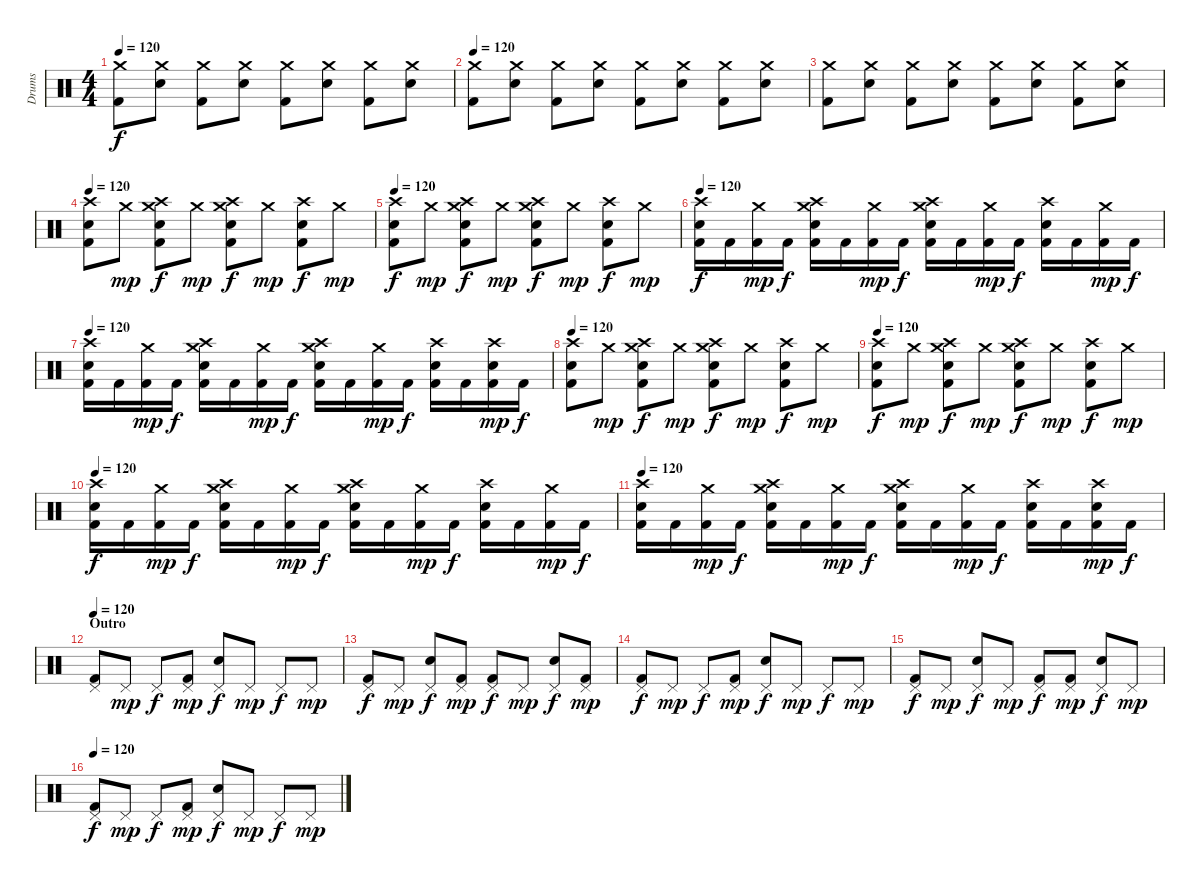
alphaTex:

\track ("Drums" "Drums") {instrument percussion}
\staff {score}
\articulation defaults
\ts (4 4)
\tempo 120
\clef neutral
\ks c
("Crash medium (hit)" "Kick (hit) 2").8{dy f} ("Crash medium (hit)" "Electric Snare (hit)").8 ("Crash medium (hit)" "Kick (hit) 2").8 ("Crash medium (hit)" "Electric Snare (hit)").8 ("Crash medium (hit)" "Kick (hit) 2").8 ("Crash medium (hit)" "Electric Snare (hit)").8 ("Crash medium (hit)" "Kick (hit) 2").8 ("Crash medium (hit)" "Electric Snare (hit)").8 |
\tempo 120
("Crash medium (hit)" "Kick (hit) 2").8 ("Crash medium (hit)" "Electric Snare (hit)").8 ("Crash medium (hit)" "Kick (hit) 2").8 ("Crash medium (hit)" "Electric Snare (hit)").8 ("Crash medium (hit)" "Kick (hit) 2").8 ("Crash medium (hit)" "Electric Snare (hit)").8 ("Crash medium (hit)" "Kick (hit) 2").8 ("Crash medium (hit)" "Electric Snare (hit)").8 |
("Crash medium (hit)" "Kick (hit) 2").8 ("Crash medium (hit)" "Electric Snare (hit)").8 ("Crash medium (hit)" "Kick (hit) 2").8 ("Crash medium (hit)" "Electric Snare (hit)").8 ("Crash medium (hit)" "Kick (hit) 2").8 ("Crash medium (hit)" "Electric Snare (hit)").8 ("Crash medium (hit)" "Kick (hit) 2").8 ("Crash medium (hit)" "Electric Snare (hit)").8 |
\tempo 120
("Crash high (hit)" "Electric Snare (hit)" "Kick (hit) 2").8 "Crash medium (hit)".8{dy mp} ("Crash medium (hit)" "Crash high (hit)" "Electric Snare (hit)" "Kick (hit) 2").8{dy f} "Crash medium (hit)".8{dy mp} ("Crash high (hit)" "Crash medium (hit)" "Electric Snare (hit)" "Kick (hit) 2").8{dy f} "Crash medium (hit)".8{dy mp} ("Crash high (hit)" "Electric Snare (hit)" "Kick (hit) 2").8{dy f} "Crash medium (hit)".8{dy mp} |
\tempo 120
("Crash high (hit)" "Electric Snare (hit)" "Kick (hit) 2").8{dy f} "Crash medium (hit)".8{dy mp} ("Crash medium (hit)" "Crash high (hit)" "Electric Snare (hit)" "Kick (hit) 2").8{dy f} "Crash medium (hit)".8{dy mp} ("Crash high (hit)" "Crash medium (hit)" "Electric Snare (hit)" "Kick (hit) 2").8{dy f} "Crash medium (hit)".8{dy mp} ("Crash high (hit)" "Electric Snare (hit)" "Kick (hit) 2").8{dy f} "Crash medium (hit)".8{dy mp} |
\tempo 120
("Crash high (hit)" "Electric Snare (hit)" "Kick (hit) 2").16{dy f} "Kick (hit) 2".16 ("Crash medium (hit)" "Kick (hit) 2").16{dy mp} "Kick (hit) 2".16{dy f} ("Crash medium (hit)" "Crash high (hit)" "Electric Snare (hit)" "Kick (hit) 2").16 "Kick (hit) 2".16 ("Crash medium (hit)" "Kick (hit) 2").16{dy mp} "Kick (hit) 2".16{dy f} ("Crash high (hit)" "Crash medium (hit)" "Electric Snare (hit)" "Kick (hit) 2").16 "Kick (hit) 2".16 ("Crash medium (hit)" "Kick (hit) 2").16{dy mp} "Kick (hit) 2".16{dy f} ("Crash high (hit)" "Electric Snare (hit)" "Kick (hit) 2").16 "Kick (hit) 2".16 ("Crash medium (hit)" "Kick (hit) 2").16{dy mp} "Kick (hit) 2".16{dy f} |
\tempo 120
("Crash high (hit)" "Electric Snare (hit)" "Kick (hit) 2").16 "Kick (hit) 2".16 ("Crash medium (hit)" "Kick (hit) 2").16{dy mp} "Kick (hit) 2".16{dy f} ("Crash medium (hit)" "Crash high (hit)" "Electric Snare (hit)" "Kick (hit) 2").16 "Kick (hit) 2".16 ("Crash medium (hit)" "Kick (hit) 2").16{dy mp} "Kick (hit) 2".16{dy f} ("Crash high (hit)" "Crash medium (hit)" "Electric Snare (hit)" "Kick (hit) 2").16 "Kick (hit) 2".16 ("Crash medium (hit)" "Kick (hit) 2").16{dy mp} "Kick (hit) 2".16{dy f} ("Crash high (hit)" "Electric Snare (hit)" "Kick (hit) 2").16 "Kick (hit) 2".16 ("Crash high (hit)" "Electric Snare (hit)" "Kick (hit) 2").16{dy mp} "Kick (hit) 2".16{dy f} |
\tempo 120
("Crash high (hit)" "Electric Snare (hit)" "Kick (hit) 2").8 "Crash medium (hit)".8{dy mp} ("Crash medium (hit)" "Crash high (hit)" "Electric Snare (hit)" "Kick (hit) 2").8{dy f} "Crash medium (hit)".8{dy mp} ("Crash high (hit)" "Crash medium (hit)" "Electric Snare (hit)" "Kick (hit) 2").8{dy f} "Crash medium (hit)".8{dy mp} ("Crash high (hit)" "Electric Snare (hit)" "Kick (hit) 2").8{dy f} "Crash medium (hit)".8{dy mp} |
\tempo 120
("Crash high (hit)" "Electric Snare (hit)" "Kick (hit) 2").8{dy f} "Crash medium (hit)".8{dy mp} ("Crash medium (hit)" "Crash high (hit)" "Electric Snare (hit)" "Kick (hit) 2").8{dy f} "Crash medium (hit)".8{dy mp} ("Crash high (hit)" "Crash medium (hit)" "Electric Snare (hit)" "Kick (hit) 2").8{dy f} "Crash medium (hit)".8{dy mp} ("Crash high (hit)" "Electric Snare (hit)" "Kick (hit) 2").8{dy f} "Crash medium (hit)".8{dy mp} |
\tempo 120
("Crash high (hit)" "Electric Snare (hit)" "Kick (hit) 2").16{dy f} "Kick (hit) 2".16 ("Crash medium (hit)" "Kick (hit) 2").16{dy mp} "Kick (hit) 2".16{dy f} ("Crash medium (hit)" "Crash high (hit)" "Electric Snare (hit)" "Kick (hit) 2").16 "Kick (hit) 2".16 ("Crash medium (hit)" "Kick (hit) 2").16{dy mp} "Kick (hit) 2".16{dy f} ("Crash high (hit)" "Crash medium (hit)" "Electric Snare (hit)" "Kick (hit) 2").16 "Kick (hit) 2".16 ("Crash medium (hit)" "Kick (hit) 2").16{dy mp} "Kick (hit) 2".16{dy f} ("Crash high (hit)" "Electric Snare (hit)" "Kick (hit) 2").16 "Kick (hit) 2".16 ("Crash medium (hit)" "Kick (hit) 2").16{dy mp} "Kick (hit) 2".16{dy f} |
\tempo 120
("Crash high (hit)" "Electric Snare (hit)" "Kick (hit) 2").16 "Kick (hit) 2".16 ("Crash medium (hit)" "Kick (hit) 2").16{dy mp} "Kick (hit) 2".16{dy f} ("Crash medium (hit)" "Crash high (hit)" "Electric Snare (hit)" "Kick (hit) 2").16 "Kick (hit) 2".16 ("Crash medium (hit)" "Kick (hit) 2").16{dy mp} "Kick (hit) 2".16{dy f} ("Crash high (hit)" "Crash medium (hit)" "Electric Snare (hit)" "Kick (hit) 2").16 "Kick (hit) 2".16 ("Crash medium (hit)" "Kick (hit) 2").16{dy mp} "Kick (hit) 2".16{dy f} ("Crash high (hit)" "Electric Snare (hit)" "Kick (hit) 2").16 "Kick (hit) 2".16 ("Crash high (hit)" "Electric Snare (hit)" "Kick (hit) 2").16{dy mp} "Kick (hit) 2".16{dy f} |
\section ("" "Outro")
\tempo 120
("Pedal Hi-Hat (hit)" "Kick (hit) 2").8 "Pedal Hi-Hat (hit)".8{dy mp} "Pedal Hi-Hat (hit)".8{dy f} ("Pedal Hi-Hat (hit)" "Kick (hit) 2").8{dy mp} ("Pedal Hi-Hat (hit)" "Electric Snare (hit)").8{dy f} "Pedal Hi-Hat (hit)".8{dy mp} "Pedal Hi-Hat (hit)".8{dy f} "Pedal Hi-Hat (hit)".8{dy mp} |
("Pedal Hi-Hat (hit)" "Kick (hit) 2").8{dy f} "Pedal Hi-Hat (hit)".8{dy mp} ("Pedal Hi-Hat (hit)" "Electric Snare (hit)").8{dy f} ("Pedal Hi-Hat (hit)" "Kick (hit) 2").8{dy mp} ("Pedal Hi-Hat (hit)" "Kick (hit) 2").8{dy f} "Pedal Hi-Hat (hit)".8{dy mp} ("Pedal Hi-Hat (hit)" "Electric Snare (hit)").8{dy f} ("Pedal Hi-Hat (hit)" "Kick (hit) 2").8{dy mp} |
("Pedal Hi-Hat (hit)" "Kick (hit) 2").8{dy f} "Pedal Hi-Hat (hit)".8{dy mp} "Pedal Hi-Hat (hit)".8{dy f} ("Pedal Hi-Hat (hit)" "Kick (hit) 2").8{dy mp} ("Pedal Hi-Hat (hit)" "Electric Snare (hit)").8{dy f} "Pedal Hi-Hat (hit)".8{dy mp} "Pedal Hi-Hat (hit)".8{dy f} "Pedal Hi-Hat (hit)".8{dy mp} |
("Pedal Hi-Hat (hit)" "Kick (hit) 2").8{dy f} "Pedal Hi-Hat (hit)".8{dy mp} ("Pedal Hi-Hat (hit)" "Electric Snare (hit)").8{dy f} "Pedal Hi-Hat (hit)".8{dy mp} ("Pedal Hi-Hat (hit)" "Kick (hit) 2").8{dy f} ("Pedal Hi-Hat (hit)" "Kick (hit) 2").8{dy mp} ("Pedal Hi-Hat (hit)" "Electric Snare (hit)").8{dy f} "Pedal Hi-Hat (hit)".8{dy mp} |
\tempo 120
("Pedal Hi-Hat (hit)" "Kick (hit) 2").8{dy f} "Pedal Hi-Hat (hit)".8{dy mp} "Pedal Hi-Hat (hit)".8{dy f} ("Pedal Hi-Hat (hit)" "Kick (hit) 2").8{dy mp} ("Pedal Hi-Hat (hit)" "Electric Snare (hit)").8{dy f} "Pedal Hi-Hat (hit)".8{dy mp} "Pedal Hi-Hat (hit)".8{dy f} "Pedal Hi-Hat (hit)".8{dy mp}
